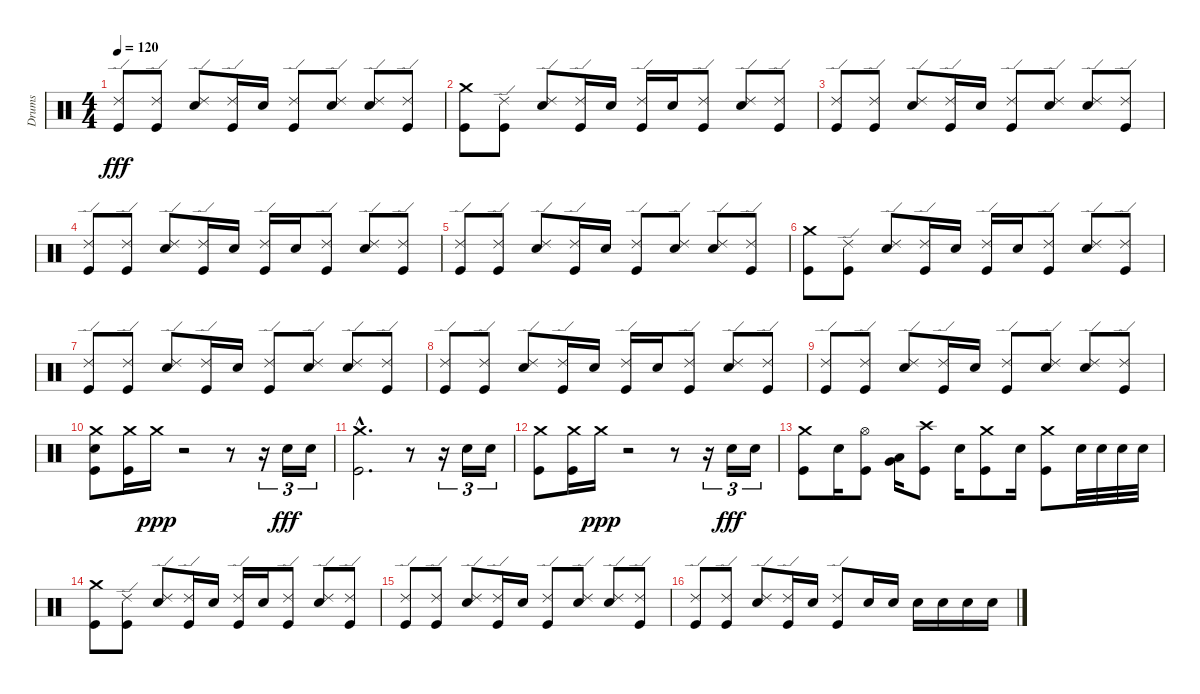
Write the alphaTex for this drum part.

\track ("Drums" "Drums") {instrument percussion}
\staff {score}
\articulation defaults
\ts (4 4)
\tempo 120
\clef neutral
\ks c
("Ride (edge) 2" "Kick (hit)").8{dy fff} ("Ride (edge) 2" "Kick (hit)").8 ("Ride (edge) 2" "Electric Snare (hit)").8 ("Ride (edge) 2" "Kick (hit)").16 "Electric Snare (hit)".16 ("Ride (edge) 2" "Kick (hit)").8 ("Ride (edge) 2" "Electric Snare (hit)").8 ("Ride (edge) 2" "Electric Snare (hit)").8 ("Ride (edge) 2" "Kick (hit)").8 |
("Crash medium (hit)" "Kick (hit)").8 ("Ride (edge) 2" "Kick (hit)").8 ("Ride (edge) 2" "Electric Snare (hit)").8 ("Ride (edge) 2" "Kick (hit)").16 "Electric Snare (hit)".16 ("Ride (edge) 2" "Kick (hit)").16 "Electric Snare (hit)".16 ("Ride (edge) 2" "Kick (hit)").8 ("Ride (edge) 2" "Electric Snare (hit)").8 ("Ride (edge) 2" "Kick (hit)").8 |
("Ride (edge) 2" "Kick (hit)").8 ("Ride (edge) 2" "Kick (hit)").8 ("Ride (edge) 2" "Electric Snare (hit)").8 ("Ride (edge) 2" "Kick (hit)").16 "Electric Snare (hit)".16 ("Ride (edge) 2" "Kick (hit)").8 ("Ride (edge) 2" "Electric Snare (hit)").8 ("Ride (edge) 2" "Electric Snare (hit)").8 ("Ride (edge) 2" "Kick (hit)").8 |
("Ride (edge) 2" "Kick (hit)").8 ("Ride (edge) 2" "Kick (hit)").8 ("Ride (edge) 2" "Electric Snare (hit)").8 ("Ride (edge) 2" "Kick (hit)").16 "Electric Snare (hit)".16 ("Ride (edge) 2" "Kick (hit)").16 "Electric Snare (hit)".16 ("Ride (edge) 2" "Kick (hit)").8 ("Ride (edge) 2" "Electric Snare (hit)").8 ("Ride (edge) 2" "Kick (hit)").8 |
("Ride (edge) 2" "Kick (hit)").8 ("Ride (edge) 2" "Kick (hit)").8 ("Ride (edge) 2" "Electric Snare (hit)").8 ("Ride (edge) 2" "Kick (hit)").16 "Electric Snare (hit)".16 ("Ride (edge) 2" "Kick (hit)").8 ("Ride (edge) 2" "Electric Snare (hit)").8 ("Ride (edge) 2" "Electric Snare (hit)").8 ("Ride (edge) 2" "Kick (hit)").8 |
("Crash medium (hit)" "Kick (hit)").8 ("Ride (edge) 2" "Kick (hit)").8 ("Ride (edge) 2" "Electric Snare (hit)").8 ("Ride (edge) 2" "Kick (hit)").16 "Electric Snare (hit)".16 ("Ride (edge) 2" "Kick (hit)").16 "Electric Snare (hit)".16 ("Ride (edge) 2" "Kick (hit)").8 ("Ride (edge) 2" "Electric Snare (hit)").8 ("Ride (edge) 2" "Kick (hit)").8 |
("Ride (edge) 2" "Kick (hit)").8 ("Ride (edge) 2" "Kick (hit)").8 ("Ride (edge) 2" "Electric Snare (hit)").8 ("Ride (edge) 2" "Kick (hit)").16 "Electric Snare (hit)".16 ("Ride (edge) 2" "Kick (hit)").8 ("Ride (edge) 2" "Electric Snare (hit)").8 ("Ride (edge) 2" "Electric Snare (hit)").8 ("Ride (edge) 2" "Kick (hit)").8 |
("Ride (edge) 2" "Kick (hit)").8 ("Ride (edge) 2" "Kick (hit)").8 ("Ride (edge) 2" "Electric Snare (hit)").8 ("Ride (edge) 2" "Kick (hit)").16 "Electric Snare (hit)".16 ("Ride (edge) 2" "Kick (hit)").16 "Electric Snare (hit)".16 ("Ride (edge) 2" "Kick (hit)").8 ("Ride (edge) 2" "Electric Snare (hit)").8 ("Ride (edge) 2" "Kick (hit)").8 |
("Ride (edge) 2" "Kick (hit)").8 ("Ride (edge) 2" "Kick (hit)").8 ("Ride (edge) 2" "Electric Snare (hit)").8 ("Ride (edge) 2" "Kick (hit)").16 "Electric Snare (hit)".16 ("Ride (edge) 2" "Kick (hit)").8 ("Ride (edge) 2" "Electric Snare (hit)").8 ("Ride (edge) 2" "Electric Snare (hit)").8 ("Ride (edge) 2" "Kick (hit)").8 |
("Crash medium (hit)" "Electric Snare (hit)" "Kick (hit)").8 ("Crash medium (hit)" "Kick (hit)").16 "Crash medium (hit)".16{dy ppp} r.2 r.8 r.16{tu (3 2)} "Electric Snare (hit)".16{tu (3 2) dy fff} "Electric Snare (hit)".16{tu (3 2)} |
("Crash medium (hit)"{hac} "Kick (hit)"{hac}).2{d} r.8 r.16{tu (3 2)} "Electric Snare (hit)".16{tu (3 2)} "Electric Snare (hit)".16{tu (3 2)} |
("Crash medium (hit)" "Kick (hit)").8 ("Crash medium (hit)" "Kick (hit)").16 "Crash medium (hit)".16{dy ppp} r.2 r.8 r.16{tu (3 2)} "Electric Snare (hit)".16{tu (3 2) dy fff} "Electric Snare (hit)".16{tu (3 2)} |
("Crash medium (hit)" "Kick (hit)").8 "Electric Snare (hit)".16 ("Hi-Hat (open)" "Kick (hit)").8 ("Low Tom (hit)" "Very Low Tom (hit)").16 ("Crash high (hit)" "Kick (hit)").8 "Electric Snare (hit)".16 ("Crash medium (hit)" "Kick (hit)").8 "Electric Snare (hit)".16 ("Crash medium (hit)" "Kick (hit)").8 "Electric Snare (hit)".32 "Electric Snare (hit)".32 "Electric Snare (hit)".32 "Electric Snare (hit)".32 |
("Crash medium (hit)" "Kick (hit)").8 ("Ride (edge) 2" "Kick (hit)").8 ("Ride (edge) 2" "Electric Snare (hit)").8 ("Ride (edge) 2" "Kick (hit)").16 "Electric Snare (hit)".16 ("Ride (edge) 2" "Kick (hit)").16 "Electric Snare (hit)".16 ("Ride (edge) 2" "Kick (hit)").8 ("Ride (edge) 2" "Electric Snare (hit)").8 ("Ride (edge) 2" "Kick (hit)").8 |
("Ride (edge) 2" "Kick (hit)").8 ("Ride (edge) 2" "Kick (hit)").8 ("Ride (edge) 2" "Electric Snare (hit)").8 ("Ride (edge) 2" "Kick (hit)").16 "Electric Snare (hit)".16 ("Ride (edge) 2" "Kick (hit)").8 ("Ride (edge) 2" "Electric Snare (hit)").8 ("Ride (edge) 2" "Electric Snare (hit)").8 ("Ride (edge) 2" "Kick (hit)").8 |
("Ride (edge) 2" "Kick (hit)").8 ("Ride (edge) 2" "Kick (hit)").8 ("Ride (edge) 2" "Electric Snare (hit)").8 ("Ride (edge) 2" "Kick (hit)").16 "Electric Snare (hit)".16 ("Ride (edge) 2" "Kick (hit)").8 "Electric Snare (hit)".16 "Electric Snare (hit)".16 "Electric Snare (hit)".16 "Electric Snare (hit)".16 "Electric Snare (hit)".16 "Electric Snare (hit)".16
